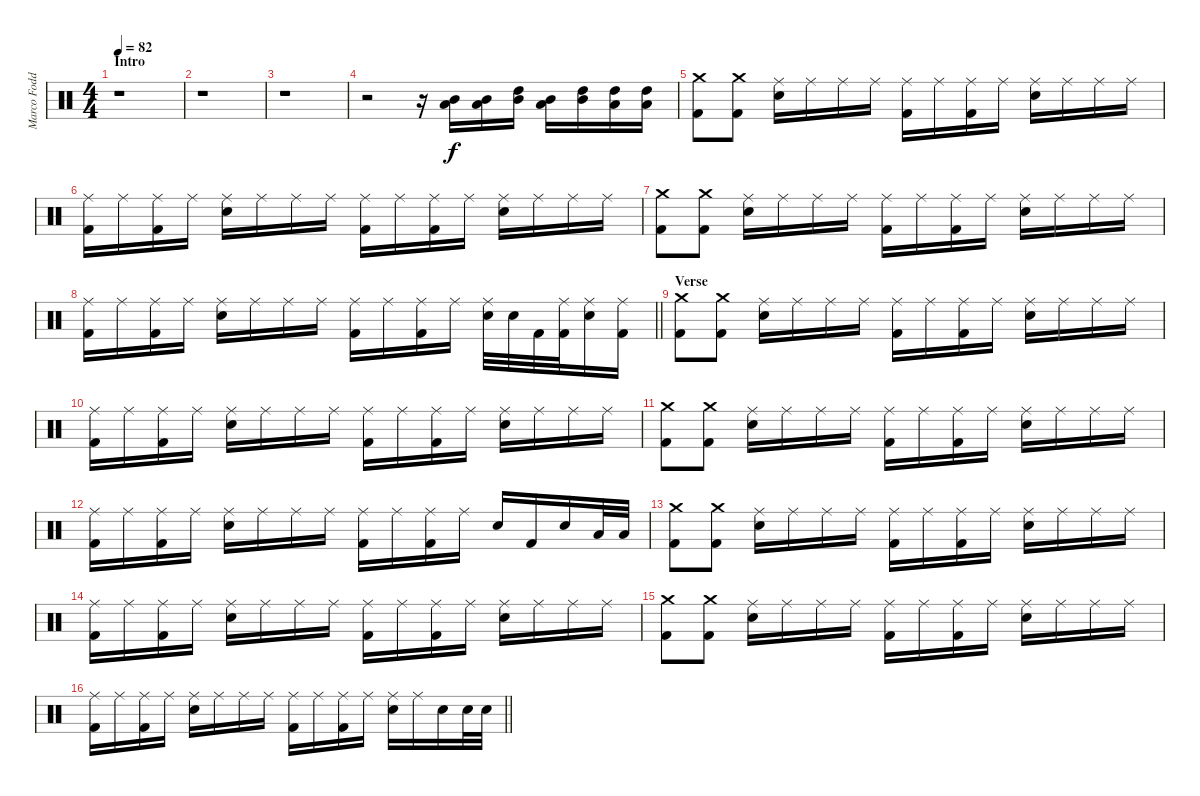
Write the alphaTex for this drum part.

\track ("Marco Foddis" "Marco Fodd") {instrument percussion}
\staff {score}
\articulation defaults
\ts (4 4)
\section ("" "Intro")
\tempo 82
\clef neutral
\ks c
r.1{dy f} |
r.1 |
r.1 |
r.2 r.16 ("Mid Tom (hit)" "Low Tom (hit)").16 ("Mid Tom (hit)" "Low Tom (hit)").16 ("High Tom (hit)" "Mid Tom (hit)").16 ("Mid Tom (hit)" "Low Tom (hit)").16 ("High Tom (hit)" "Mid Tom (hit)").16 ("High Tom (hit)" "Low Tom (hit)").16 ("High Tom (hit)" "Low Tom (hit)").16 |
("Crash medium (hit)" "Kick (hit) 2").8 ("Crash medium (hit)" "Kick (hit) 2").8 ("Ride (middle)" "Electric Snare (hit)").16 "Ride (middle)".16 "Ride (middle)".16 "Ride (middle)".16 ("Ride (middle)" "Kick (hit) 2").16 "Ride (middle)".16 ("Ride (middle)" "Kick (hit) 2").16 "Ride (middle)".16 ("Ride (middle)" "Electric Snare (hit)").16 "Ride (middle)".16 "Ride (middle)".16 "Ride (middle)".16 |
("Ride (middle)" "Kick (hit) 2").16 "Ride (middle)".16 ("Ride (middle)" "Kick (hit) 2").16 "Ride (middle)".16 ("Ride (middle)" "Electric Snare (hit)").16 "Ride (middle)".16 "Ride (middle)".16 "Ride (middle)".16 ("Ride (middle)" "Kick (hit) 2").16 "Ride (middle)".16 ("Ride (middle)" "Kick (hit) 2").16 "Ride (middle)".16 ("Ride (middle)" "Electric Snare (hit)").16 "Ride (middle)".16 "Ride (middle)".16 "Ride (middle)".16 |
("Crash medium (hit)" "Kick (hit) 2").8 ("Crash medium (hit)" "Kick (hit) 2").8 ("Ride (middle)" "Electric Snare (hit)").16 "Ride (middle)".16 "Ride (middle)".16 "Ride (middle)".16 ("Ride (middle)" "Kick (hit) 2").16 "Ride (middle)".16 ("Ride (middle)" "Kick (hit) 2").16 "Ride (middle)".16 ("Ride (middle)" "Electric Snare (hit)").16 "Ride (middle)".16 "Ride (middle)".16 "Ride (middle)".16 |
\barLineRight lightlight
("Ride (middle)" "Kick (hit) 2").16 "Ride (middle)".16 ("Ride (middle)" "Kick (hit) 2").16 "Ride (middle)".16 ("Ride (middle)" "Electric Snare (hit)").16 "Ride (middle)".16 "Ride (middle)".16 "Ride (middle)".16 ("Ride (middle)" "Kick (hit) 2").16 "Ride (middle)".16 ("Ride (middle)" "Kick (hit) 2").16 "Ride (middle)".16 ("Ride (middle)" "Electric Snare (hit)").32 "Electric Snare (hit)".32 "Kick (hit) 2".32 ("Ride (middle)" "Kick (hit) 2").32 ("Ride (middle)" "Electric Snare (hit)").16 ("Ride (middle)" "Kick (hit) 2").16 |
\section ("" "Verse")
("Crash medium (hit)" "Kick (hit) 2").8 ("Crash medium (hit)" "Kick (hit) 2").8 ("Ride (middle)" "Electric Snare (hit)").16 "Ride (middle)".16 "Ride (middle)".16 "Ride (middle)".16 ("Ride (middle)" "Kick (hit) 2").16 "Ride (middle)".16 ("Ride (middle)" "Kick (hit) 2").16 "Ride (middle)".16 ("Ride (middle)" "Electric Snare (hit)").16 "Ride (middle)".16 "Ride (middle)".16 "Ride (middle)".16 |
("Ride (middle)" "Kick (hit) 2").16 "Ride (middle)".16 ("Ride (middle)" "Kick (hit) 2").16 "Ride (middle)".16 ("Ride (middle)" "Electric Snare (hit)").16 "Ride (middle)".16 "Ride (middle)".16 "Ride (middle)".16 ("Ride (middle)" "Kick (hit) 2").16 "Ride (middle)".16 ("Ride (middle)" "Kick (hit) 2").16 "Ride (middle)".16 ("Ride (middle)" "Electric Snare (hit)").16 "Ride (middle)".16 "Ride (middle)".16 "Ride (middle)".16 |
("Crash medium (hit)" "Kick (hit) 2").8 ("Crash medium (hit)" "Kick (hit) 2").8 ("Ride (middle)" "Electric Snare (hit)").16 "Ride (middle)".16 "Ride (middle)".16 "Ride (middle)".16 ("Ride (middle)" "Kick (hit) 2").16 "Ride (middle)".16 ("Ride (middle)" "Kick (hit) 2").16 "Ride (middle)".16 ("Ride (middle)" "Electric Snare (hit)").16 "Ride (middle)".16 "Ride (middle)".16 "Ride (middle)".16 |
("Ride (middle)" "Kick (hit) 2").16 "Ride (middle)".16 ("Ride (middle)" "Kick (hit) 2").16 "Ride (middle)".16 ("Ride (middle)" "Electric Snare (hit)").16 "Ride (middle)".16 "Ride (middle)".16 "Ride (middle)".16 ("Ride (middle)" "Kick (hit) 2").16 "Ride (middle)".16 ("Ride (middle)" "Kick (hit) 2").16 "Ride (middle)".16 "Electric Snare (hit)".16 "Kick (hit) 2".16 "Electric Snare (hit)".16 "Low Tom (hit)".32 "Low Tom (hit)".32 |
("Crash medium (hit)" "Kick (hit) 2").8 ("Crash medium (hit)" "Kick (hit) 2").8 ("Ride (middle)" "Electric Snare (hit)").16 "Ride (middle)".16 "Ride (middle)".16 "Ride (middle)".16 ("Ride (middle)" "Kick (hit) 2").16 "Ride (middle)".16 ("Ride (middle)" "Kick (hit) 2").16 "Ride (middle)".16 ("Ride (middle)" "Electric Snare (hit)").16 "Ride (middle)".16 "Ride (middle)".16 "Ride (middle)".16 |
("Ride (middle)" "Kick (hit) 2").16 "Ride (middle)".16 ("Ride (middle)" "Kick (hit) 2").16 "Ride (middle)".16 ("Ride (middle)" "Electric Snare (hit)").16 "Ride (middle)".16 "Ride (middle)".16 "Ride (middle)".16 ("Ride (middle)" "Kick (hit) 2").16 "Ride (middle)".16 ("Ride (middle)" "Kick (hit) 2").16 "Ride (middle)".16 ("Ride (middle)" "Electric Snare (hit)").16 "Ride (middle)".16 "Ride (middle)".16 "Ride (middle)".16 |
("Crash medium (hit)" "Kick (hit) 2").8 ("Crash medium (hit)" "Kick (hit) 2").8 ("Ride (middle)" "Electric Snare (hit)").16 "Ride (middle)".16 "Ride (middle)".16 "Ride (middle)".16 ("Ride (middle)" "Kick (hit) 2").16 "Ride (middle)".16 ("Ride (middle)" "Kick (hit) 2").16 "Ride (middle)".16 ("Ride (middle)" "Electric Snare (hit)").16 "Ride (middle)".16 "Ride (middle)".16 "Ride (middle)".16 |
\barLineRight lightlight
("Ride (middle)" "Kick (hit) 2").16 "Ride (middle)".16 ("Ride (middle)" "Kick (hit) 2").16 "Ride (middle)".16 ("Ride (middle)" "Electric Snare (hit)").16 "Ride (middle)".16 "Ride (middle)".16 "Ride (middle)".16 ("Ride (middle)" "Kick (hit) 2").16 "Ride (middle)".16 ("Ride (middle)" "Kick (hit) 2").16 "Ride (middle)".16 ("Ride (middle)" "Electric Snare (hit)").16 "Ride (middle)".16 "Electric Snare (hit)".16 "Electric Snare (hit)".32 "Electric Snare (hit)".32
